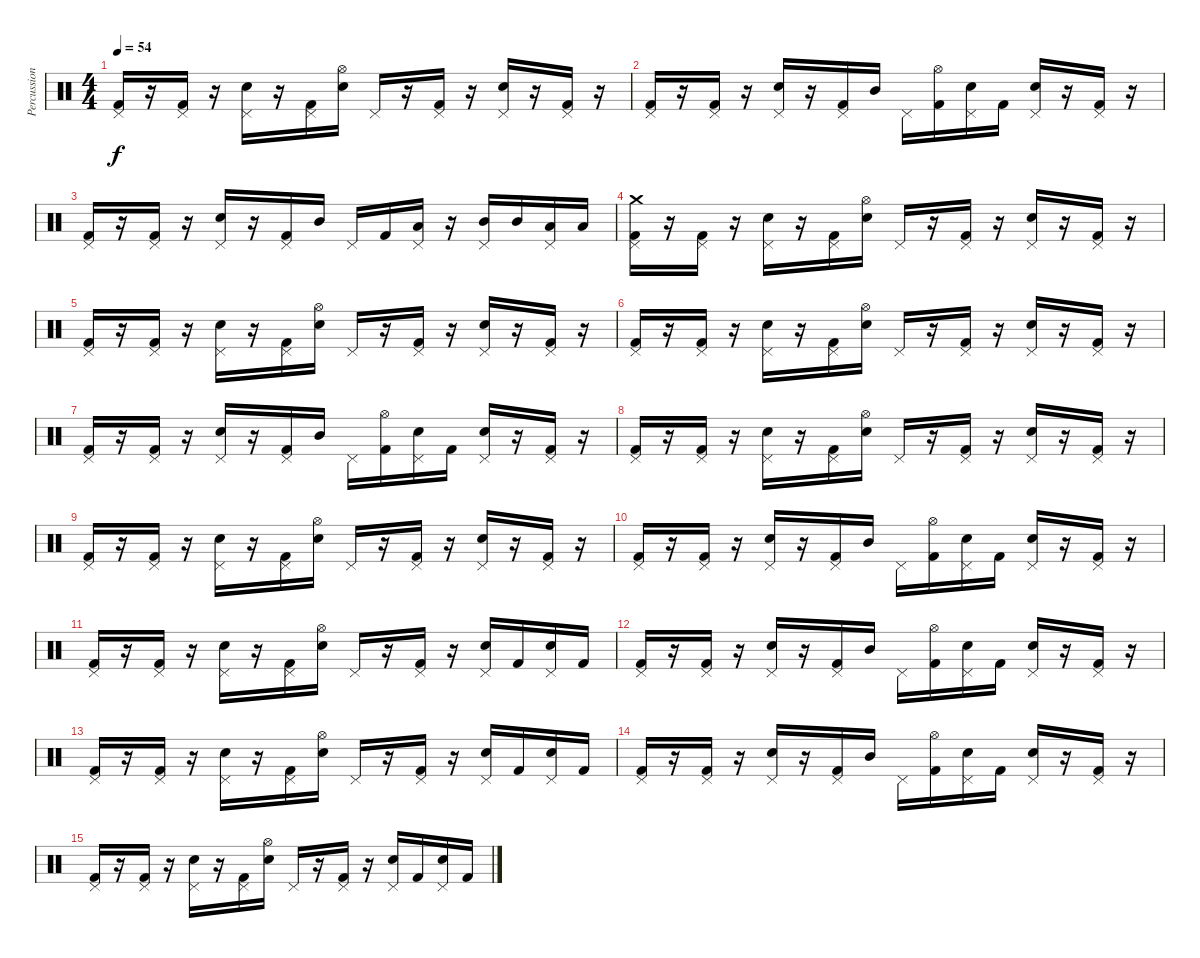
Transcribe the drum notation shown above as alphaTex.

\track ("Percussion" "Percussion") {instrument percussion}
\staff {score}
\articulation defaults
\ts (4 4)
\tempo 54
\clef neutral
\ks c
("Pedal Hi-Hat (hit)" "Kick (hit) 2").16{dy f} r.16 ("Pedal Hi-Hat (hit)" "Kick (hit) 2").16 r.16 ("Pedal Hi-Hat (hit)" "Snare (hit) 2").16 r.16 ("Pedal Hi-Hat (hit)" "Kick (hit) 2").16 ("Hi-Hat (open)" "Snare (hit) 2").16 "Pedal Hi-Hat (hit)".16 r.16 ("Pedal Hi-Hat (hit)" "Kick (hit) 2").16 r.16 ("Pedal Hi-Hat (hit)" "Snare (hit) 2").16 r.16 ("Pedal Hi-Hat (hit)" "Kick (hit) 2").16 r.16 |
("Pedal Hi-Hat (hit)" "Kick (hit) 2").16 r.16 ("Pedal Hi-Hat (hit)" "Kick (hit) 2").16 r.16 ("Pedal Hi-Hat (hit)" "Snare (hit) 2").16 r.16 ("Pedal Hi-Hat (hit)" "Kick (hit) 2").16 "Mid Tom (hit)".16 "Pedal Hi-Hat (hit)".16 ("Hi-Hat (open)" "Kick (hit) 2").16 ("Pedal Hi-Hat (hit)" "Snare (hit) 2").16 "Kick (hit) 2".16 ("Pedal Hi-Hat (hit)" "Snare (hit) 2").16 r.16 ("Pedal Hi-Hat (hit)" "Kick (hit) 2").16 r.16 |
("Pedal Hi-Hat (hit)" "Kick (hit) 2").16 r.16 ("Pedal Hi-Hat (hit)" "Kick (hit) 2").16 r.16 ("Pedal Hi-Hat (hit)" "Snare (hit) 2").16 r.16 ("Pedal Hi-Hat (hit)" "Kick (hit) 2").16 "Mid Tom (hit)".16 "Pedal Hi-Hat (hit)".16 "Kick (hit) 2".16 ("Pedal Hi-Hat (hit)" "Low Tom (hit)").16 r.16 ("Pedal Hi-Hat (hit)" "Mid Tom (hit)").16 "Mid Tom (hit)".16 ("Pedal Hi-Hat (hit)" "Low Tom (hit)").16 "Low Tom (hit)".16 |
("Crash medium (hit)" "Pedal Hi-Hat (hit)" "Kick (hit) 2").16 r.16 ("Pedal Hi-Hat (hit)" "Kick (hit) 2").16 r.16 ("Pedal Hi-Hat (hit)" "Snare (hit) 2").16 r.16 ("Pedal Hi-Hat (hit)" "Kick (hit) 2").16 ("Hi-Hat (open)" "Snare (hit) 2").16 "Pedal Hi-Hat (hit)".16 r.16 ("Pedal Hi-Hat (hit)" "Kick (hit) 2").16 r.16 ("Pedal Hi-Hat (hit)" "Snare (hit) 2").16 r.16 ("Pedal Hi-Hat (hit)" "Kick (hit) 2").16 r.16 |
("Pedal Hi-Hat (hit)" "Kick (hit) 2").16 r.16 ("Pedal Hi-Hat (hit)" "Kick (hit) 2").16 r.16 ("Pedal Hi-Hat (hit)" "Snare (hit) 2").16 r.16 ("Pedal Hi-Hat (hit)" "Kick (hit) 2").16 ("Hi-Hat (open)" "Snare (hit) 2").16 "Pedal Hi-Hat (hit)".16 r.16 ("Pedal Hi-Hat (hit)" "Kick (hit) 2").16 r.16 ("Pedal Hi-Hat (hit)" "Snare (hit) 2").16 r.16 ("Pedal Hi-Hat (hit)" "Kick (hit) 2").16 r.16 |
("Pedal Hi-Hat (hit)" "Kick (hit) 2").16 r.16 ("Pedal Hi-Hat (hit)" "Kick (hit) 2").16 r.16 ("Pedal Hi-Hat (hit)" "Snare (hit) 2").16 r.16 ("Pedal Hi-Hat (hit)" "Kick (hit) 2").16 ("Hi-Hat (open)" "Snare (hit) 2").16 "Pedal Hi-Hat (hit)".16 r.16 ("Pedal Hi-Hat (hit)" "Kick (hit) 2").16 r.16 ("Pedal Hi-Hat (hit)" "Snare (hit) 2").16 r.16 ("Pedal Hi-Hat (hit)" "Kick (hit) 2").16 r.16 |
("Pedal Hi-Hat (hit)" "Kick (hit) 2").16{volume 8} r.16 ("Pedal Hi-Hat (hit)" "Kick (hit) 2").16 r.16 ("Pedal Hi-Hat (hit)" "Snare (hit) 2").16 r.16 ("Pedal Hi-Hat (hit)" "Kick (hit) 2").16 "Mid Tom (hit)".16 "Pedal Hi-Hat (hit)".16 ("Hi-Hat (open)" "Kick (hit) 2").16 ("Pedal Hi-Hat (hit)" "Snare (hit) 2").16 "Kick (hit) 2".16 ("Pedal Hi-Hat (hit)" "Snare (hit) 2").16 r.16 ("Pedal Hi-Hat (hit)" "Kick (hit) 2").16 r.16 |
("Pedal Hi-Hat (hit)" "Kick (hit) 2").16 r.16 ("Pedal Hi-Hat (hit)" "Kick (hit) 2").16 r.16 ("Pedal Hi-Hat (hit)" "Snare (hit) 2").16 r.16 ("Pedal Hi-Hat (hit)" "Kick (hit) 2").16 ("Hi-Hat (open)" "Snare (hit) 2").16 "Pedal Hi-Hat (hit)".16 r.16 ("Pedal Hi-Hat (hit)" "Kick (hit) 2").16 r.16 ("Pedal Hi-Hat (hit)" "Snare (hit) 2").16 r.16 ("Pedal Hi-Hat (hit)" "Kick (hit) 2").16 r.16 |
("Pedal Hi-Hat (hit)" "Kick (hit) 2").16{volume 7} r.16 ("Pedal Hi-Hat (hit)" "Kick (hit) 2").16 r.16 ("Pedal Hi-Hat (hit)" "Snare (hit) 2").16 r.16 ("Pedal Hi-Hat (hit)" "Kick (hit) 2").16 ("Hi-Hat (open)" "Snare (hit) 2").16 "Pedal Hi-Hat (hit)".16 r.16 ("Pedal Hi-Hat (hit)" "Kick (hit) 2").16 r.16 ("Pedal Hi-Hat (hit)" "Snare (hit) 2").16 r.16 ("Pedal Hi-Hat (hit)" "Kick (hit) 2").16 r.16 |
("Pedal Hi-Hat (hit)" "Kick (hit) 2").16 r.16 ("Pedal Hi-Hat (hit)" "Kick (hit) 2").16 r.16 ("Pedal Hi-Hat (hit)" "Snare (hit) 2").16 r.16 ("Pedal Hi-Hat (hit)" "Kick (hit) 2").16 "Mid Tom (hit)".16 "Pedal Hi-Hat (hit)".16 ("Hi-Hat (open)" "Kick (hit) 2").16 ("Pedal Hi-Hat (hit)" "Snare (hit) 2").16 "Kick (hit) 2".16 ("Pedal Hi-Hat (hit)" "Snare (hit) 2").16 r.16 ("Pedal Hi-Hat (hit)" "Kick (hit) 2").16 r.16 |
("Pedal Hi-Hat (hit)" "Kick (hit) 2").16{volume 1} r.16 ("Pedal Hi-Hat (hit)" "Kick (hit) 2").16 r.16 ("Pedal Hi-Hat (hit)" "Snare (hit) 2").16 r.16 ("Pedal Hi-Hat (hit)" "Kick (hit) 2").16 ("Hi-Hat (open)" "Snare (hit) 2").16 "Pedal Hi-Hat (hit)".16 r.16 ("Pedal Hi-Hat (hit)" "Kick (hit) 2").16 r.16 ("Pedal Hi-Hat (hit)" "Snare (hit) 2").16 "Kick (hit) 2".16 ("Pedal Hi-Hat (hit)" "Snare (hit) 2").16 "Kick (hit) 2".16 |
("Pedal Hi-Hat (hit)" "Kick (hit) 2").16 r.16 ("Pedal Hi-Hat (hit)" "Kick (hit) 2").16 r.16 ("Pedal Hi-Hat (hit)" "Snare (hit) 2").16 r.16 ("Pedal Hi-Hat (hit)" "Kick (hit) 2").16 "Mid Tom (hit)".16 "Pedal Hi-Hat (hit)".16 ("Hi-Hat (open)" "Kick (hit) 2").16 ("Pedal Hi-Hat (hit)" "Snare (hit) 2").16 "Kick (hit) 2".16 ("Pedal Hi-Hat (hit)" "Snare (hit) 2").16 r.16 ("Pedal Hi-Hat (hit)" "Kick (hit) 2").16 r.16 |
("Pedal Hi-Hat (hit)" "Kick (hit) 2").16 r.16 ("Pedal Hi-Hat (hit)" "Kick (hit) 2").16 r.16 ("Pedal Hi-Hat (hit)" "Snare (hit) 2").16 r.16 ("Pedal Hi-Hat (hit)" "Kick (hit) 2").16 ("Hi-Hat (open)" "Snare (hit) 2").16 "Pedal Hi-Hat (hit)".16 r.16 ("Pedal Hi-Hat (hit)" "Kick (hit) 2").16 r.16 ("Pedal Hi-Hat (hit)" "Snare (hit) 2").16 "Kick (hit) 2".16 ("Pedal Hi-Hat (hit)" "Snare (hit) 2").16 "Kick (hit) 2".16 |
("Pedal Hi-Hat (hit)" "Kick (hit) 2").16 r.16{volume 0} ("Pedal Hi-Hat (hit)" "Kick (hit) 2").16 r.16 ("Pedal Hi-Hat (hit)" "Snare (hit) 2").16 r.16 ("Pedal Hi-Hat (hit)" "Kick (hit) 2").16 "Mid Tom (hit)".16 "Pedal Hi-Hat (hit)".16 ("Hi-Hat (open)" "Kick (hit) 2").16 ("Pedal Hi-Hat (hit)" "Snare (hit) 2").16 "Kick (hit) 2".16 ("Pedal Hi-Hat (hit)" "Snare (hit) 2").16 r.16 ("Pedal Hi-Hat (hit)" "Kick (hit) 2").16 r.16 |
("Pedal Hi-Hat (hit)" "Kick (hit) 2").16 r.16 ("Pedal Hi-Hat (hit)" "Kick (hit) 2").16 r.16 ("Pedal Hi-Hat (hit)" "Snare (hit) 2").16 r.16 ("Pedal Hi-Hat (hit)" "Kick (hit) 2").16 ("Hi-Hat (open)" "Snare (hit) 2").16 "Pedal Hi-Hat (hit)".16 r.16 ("Pedal Hi-Hat (hit)" "Kick (hit) 2").16 r.16 ("Pedal Hi-Hat (hit)" "Snare (hit) 2").16 "Kick (hit) 2".16 ("Pedal Hi-Hat (hit)" "Snare (hit) 2").16 "Kick (hit) 2".16
